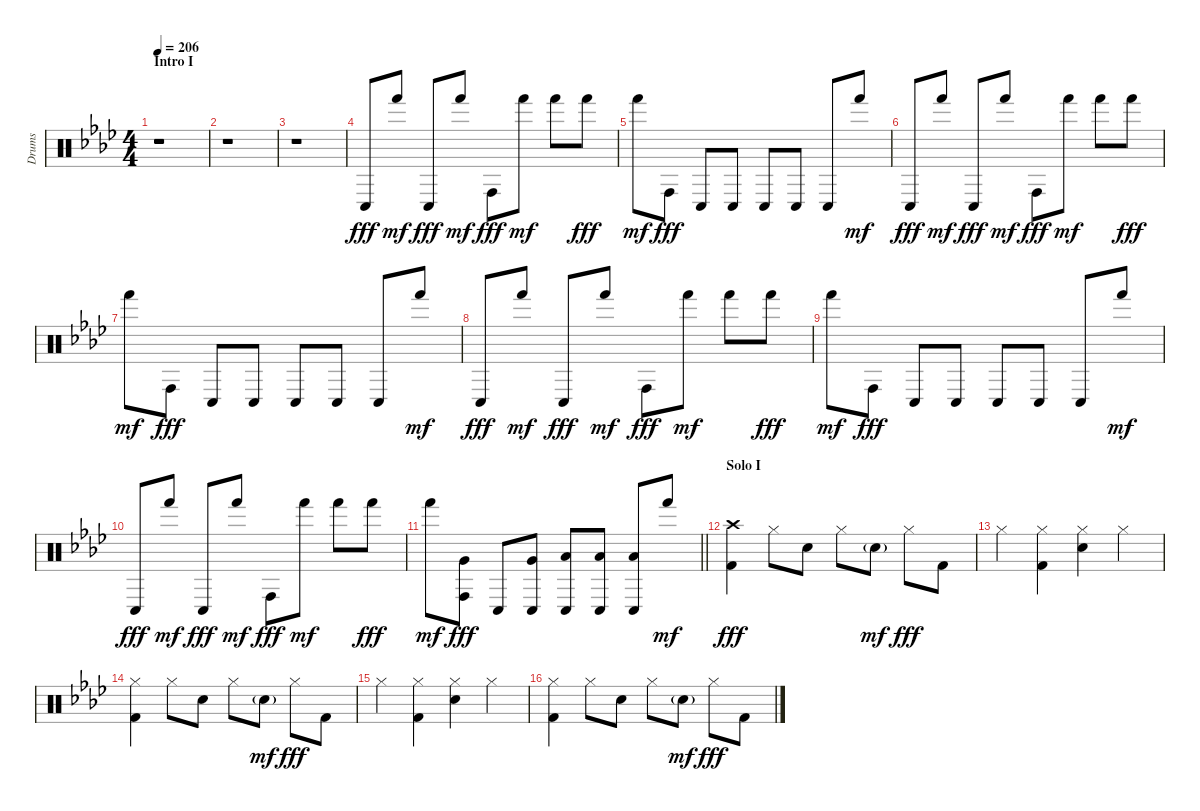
\track ("Drums" "Drums") {instrument percussion}
\staff {score}
\articulation defaults
\ts (4 4)
\section ("" "Intro I")
\tempo 206
\clef neutral
\ks ab
r.1{dy fff} |
r.1 |
r.1 |
"Conga low (hit)".8 "Hand (hit)".8{dy mf} "Conga low (hit)".8{dy fff} "Hand (hit)".8{dy mf} "Conga high (hit)".8{dy fff} "Hand (hit)".8{dy mf} "Hand (hit)".8 "Hand (hit)".8{dy fff} |
"Hand (hit)".8{dy mf} "Conga high (hit)".8{dy fff} "Conga low (hit)".8 "Conga low (hit)".8 "Conga low (hit)".8 "Conga low (hit)".8 "Conga low (hit)".8 "Hand (hit)".8{dy mf} |
"Conga low (hit)".8{dy fff} "Hand (hit)".8{dy mf} "Conga low (hit)".8{dy fff} "Hand (hit)".8{dy mf} "Conga high (hit)".8{dy fff} "Hand (hit)".8{dy mf} "Hand (hit)".8 "Hand (hit)".8{dy fff} |
"Hand (hit)".8{dy mf} "Conga high (hit)".8{dy fff} "Conga low (hit)".8 "Conga low (hit)".8 "Conga low (hit)".8 "Conga low (hit)".8 "Conga low (hit)".8 "Hand (hit)".8{dy mf} |
"Conga low (hit)".8{dy fff} "Hand (hit)".8{dy mf} "Conga low (hit)".8{dy fff} "Hand (hit)".8{dy mf} "Conga high (hit)".8{dy fff} "Hand (hit)".8{dy mf} "Hand (hit)".8 "Hand (hit)".8{dy fff} |
"Hand (hit)".8{dy mf} "Conga high (hit)".8{dy fff} "Conga low (hit)".8 "Conga low (hit)".8 "Conga low (hit)".8 "Conga low (hit)".8 "Conga low (hit)".8 "Hand (hit)".8{dy mf} |
"Conga low (hit)".8{dy fff} "Hand (hit)".8{dy mf} "Conga low (hit)".8{dy fff} "Hand (hit)".8{dy mf} "Conga high (hit)".8{dy fff} "Hand (hit)".8{dy mf} "Hand (hit)".8 "Hand (hit)".8{dy fff} |
\barLineRight lightlight "Hand (hit)".8{dy mf}
("Conga high (hit)" "Very Low Tom (hit)").8{dy fff} "Conga low (hit)".8 ("Conga low (hit)" "Very Low Tom (hit)").8 ("Conga low (hit)" "Low Floor Tom (hit)").8 ("Conga low (hit)" "Low Floor Tom (hit)").8 ("Conga low (hit)" "Low Floor Tom (hit)").8 "Hand (hit)".8{dy mf} |
\section ("" "Solo I")
("Crash high (hit)" "Kick (hit) 2").4{dy fff} "Hi-Hat (closed)".8 "Electric Snare (hit)".8 "Hi-Hat (closed)".8 "Electric Snare (hit)"{g}.8{dy mf} "Hi-Hat (closed)".8{dy fff} "Kick (hit) 2".8 |
"Hi-Hat (closed)".4 ("Hi-Hat (closed)" "Kick (hit) 2").4 ("Hi-Hat (closed)" "Electric Snare (hit)").4 "Hi-Hat (closed)".4 |
("Hi-Hat (closed)" "Kick (hit) 2").4 "Hi-Hat (closed)".8 "Electric Snare (hit)".8 "Hi-Hat (closed)".8 "Electric Snare (hit)"{g}.8{dy mf} "Hi-Hat (closed)".8{dy fff} "Kick (hit) 2".8 |
"Hi-Hat (closed)".4 ("Hi-Hat (closed)" "Kick (hit) 2").4 ("Hi-Hat (closed)" "Electric Snare (hit)").4 "Hi-Hat (closed)".4 |
("Hi-Hat (closed)" "Kick (hit) 2").4 "Hi-Hat (closed)".8 "Electric Snare (hit)".8 "Hi-Hat (closed)".8 "Electric Snare (hit)"{g}.8{dy mf} "Hi-Hat (closed)".8{dy fff} "Kick (hit) 2".8
